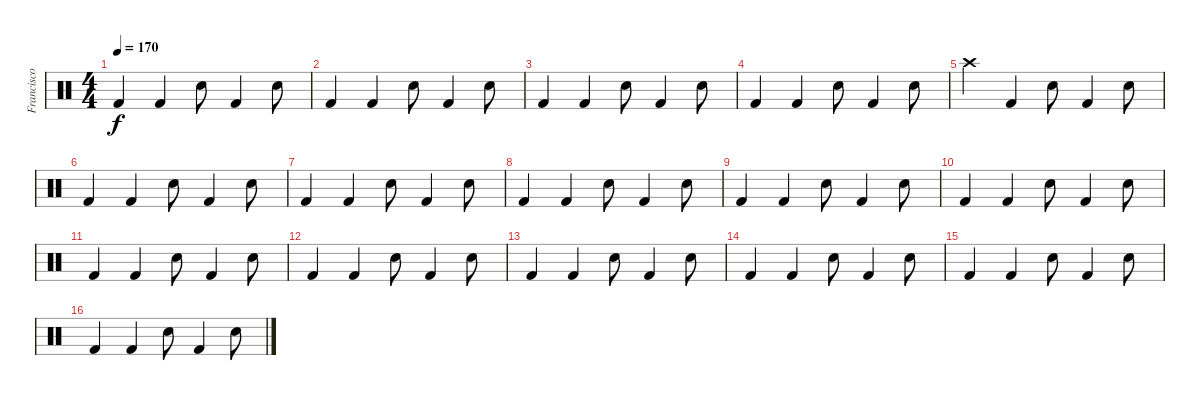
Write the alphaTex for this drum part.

\track ("Francisco (batería)" "Francisco ") {instrument percussion}
\staff {score}
\articulation defaults
\ts (4 4)
\tempo 170
\clef neutral
\ks c "Kick (hit) 2".4{dy f} "Kick (hit) 2".4 "Hand Clap (hit)".8 "Kick (hit) 2".4 "Hand Clap (hit)".8
|
"Kick (hit) 2".4 "Kick (hit) 2".4 "Hand Clap (hit)".8 "Kick (hit) 2".4 "Hand Clap (hit)".8 |
"Kick (hit) 2".4 "Kick (hit) 2".4 "Hand Clap (hit)".8 "Kick (hit) 2".4 "Hand Clap (hit)".8 |
"Kick (hit) 2".4 "Kick (hit) 2".4 "Hand Clap (hit)".8 "Kick (hit) 2".4 "Hand Clap (hit)".8 |
"Crash high (hit)".4{volume 16} "Kick (hit) 2".4 "Electric Snare (hit)".8 "Kick (hit) 2".4 "Electric Snare (hit)".8 |
"Kick (hit) 2".4{volume 16} "Kick (hit) 2".4 "Electric Snare (hit)".8 "Kick (hit) 2".4 "Electric Snare (hit)".8 |
"Kick (hit) 2".4{volume 16} "Kick (hit) 2".4 "Electric Snare (hit)".8 "Kick (hit) 2".4 "Electric Snare (hit)".8 |
"Kick (hit) 2".4{volume 16} "Kick (hit) 2".4 "Electric Snare (hit)".8 "Kick (hit) 2".4 "Electric Snare (hit)".8 |
"Kick (hit) 2".4{volume 16} "Kick (hit) 2".4 "Electric Snare (hit)".8 "Kick (hit) 2".4 "Electric Snare (hit)".8 |
"Kick (hit) 2".4{volume 16} "Kick (hit) 2".4 "Electric Snare (hit)".8 "Kick (hit) 2".4 "Electric Snare (hit)".8 |
"Kick (hit) 2".4{volume 16} "Kick (hit) 2".4 "Electric Snare (hit)".8 "Kick (hit) 2".4 "Electric Snare (hit)".8 |
"Kick (hit) 2".4{volume 16} "Kick (hit) 2".4 "Electric Snare (hit)".8 "Kick (hit) 2".4 "Electric Snare (hit)".8 |
"Kick (hit) 2".4{volume 16} "Kick (hit) 2".4 "Electric Snare (hit)".8 "Kick (hit) 2".4 "Electric Snare (hit)".8 |
"Kick (hit) 2".4{volume 16} "Kick (hit) 2".4 "Electric Snare (hit)".8 "Kick (hit) 2".4 "Electric Snare (hit)".8 |
"Kick (hit) 2".4{volume 16} "Kick (hit) 2".4 "Electric Snare (hit)".8 "Kick (hit) 2".4 "Electric Snare (hit)".8 |
"Kick (hit) 2".4{volume 16} "Kick (hit) 2".4 "Electric Snare (hit)".8 "Kick (hit) 2".4 "Electric Snare (hit)".8
